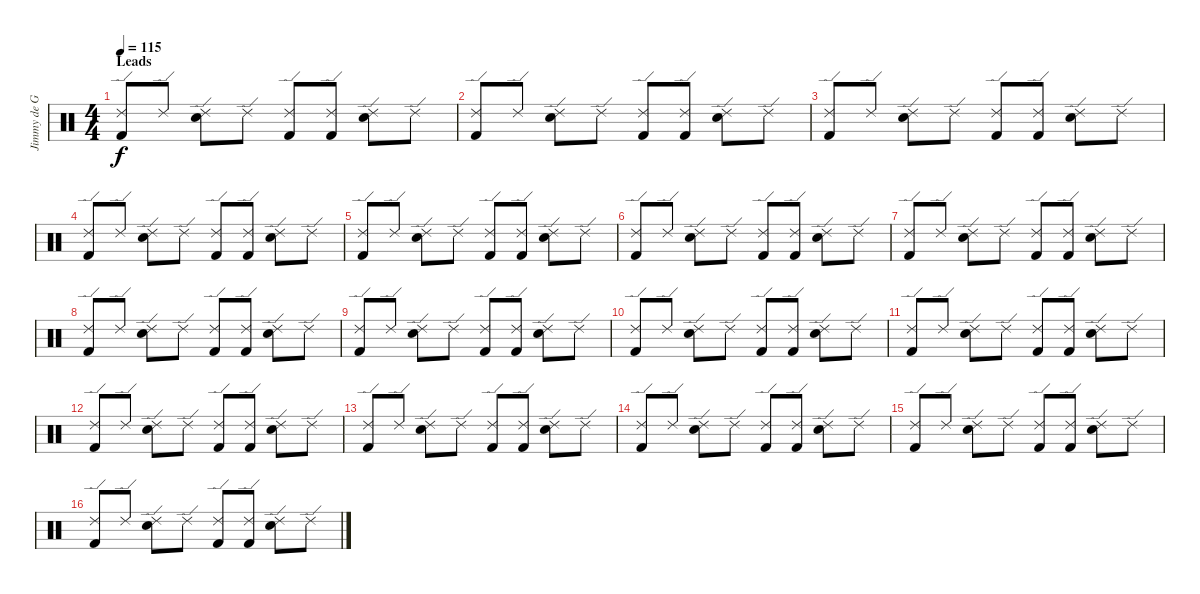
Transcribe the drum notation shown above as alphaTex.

\track ("Jimmy de Grasso" "Jimmy de G") {instrument percussion}
\staff {score}
\articulation defaults
\ts (4 4)
\section ("" "Leads")
\tempo 115
\clef neutral
\ks c
("Ride (edge) 2" "Kick (hit) 2").8{dy f} "Ride (edge) 2".8 ("Ride (edge) 2" "Snare (hit) 2").8 "Ride (edge) 2".8 ("Ride (edge) 2" "Kick (hit) 2").8 ("Ride (edge) 2" "Kick (hit) 2").8 ("Ride (edge) 2" "Snare (hit) 2").8 "Ride (edge) 2".8 |
("Ride (edge) 2" "Kick (hit) 2").8 "Ride (edge) 2".8 ("Ride (edge) 2" "Snare (hit) 2").8 "Ride (edge) 2".8 ("Ride (edge) 2" "Kick (hit) 2").8 ("Ride (edge) 2" "Kick (hit) 2").8 ("Ride (edge) 2" "Snare (hit) 2").8 "Ride (edge) 2".8 |
("Ride (edge) 2" "Kick (hit) 2").8 "Ride (edge) 2".8 ("Ride (edge) 2" "Snare (hit) 2").8 "Ride (edge) 2".8 ("Ride (edge) 2" "Kick (hit) 2").8 ("Ride (edge) 2" "Kick (hit) 2").8 ("Ride (edge) 2" "Snare (hit) 2").8 "Ride (edge) 2".8 |
("Ride (edge) 2" "Kick (hit) 2").8 "Ride (edge) 2".8 ("Ride (edge) 2" "Snare (hit) 2").8 "Ride (edge) 2".8 ("Ride (edge) 2" "Kick (hit) 2").8 ("Ride (edge) 2" "Kick (hit) 2").8 ("Ride (edge) 2" "Snare (hit) 2").8 "Ride (edge) 2".8 |
("Ride (edge) 2" "Kick (hit) 2").8 "Ride (edge) 2".8 ("Ride (edge) 2" "Snare (hit) 2").8 "Ride (edge) 2".8 ("Ride (edge) 2" "Kick (hit) 2").8 ("Ride (edge) 2" "Kick (hit) 2").8 ("Ride (edge) 2" "Snare (hit) 2").8 "Ride (edge) 2".8 |
("Ride (edge) 2" "Kick (hit) 2").8 "Ride (edge) 2".8 ("Ride (edge) 2" "Snare (hit) 2").8 "Ride (edge) 2".8 ("Ride (edge) 2" "Kick (hit) 2").8 ("Ride (edge) 2" "Kick (hit) 2").8 ("Ride (edge) 2" "Snare (hit) 2").8 "Ride (edge) 2".8 |
("Ride (edge) 2" "Kick (hit) 2").8 "Ride (edge) 2".8 ("Ride (edge) 2" "Snare (hit) 2").8 "Ride (edge) 2".8 ("Ride (edge) 2" "Kick (hit) 2").8 ("Ride (edge) 2" "Kick (hit) 2").8 ("Ride (edge) 2" "Snare (hit) 2").8 "Ride (edge) 2".8 |
("Ride (edge) 2" "Kick (hit) 2").8 "Ride (edge) 2".8 ("Ride (edge) 2" "Snare (hit) 2").8 "Ride (edge) 2".8 ("Ride (edge) 2" "Kick (hit) 2").8 ("Ride (edge) 2" "Kick (hit) 2").8 ("Ride (edge) 2" "Snare (hit) 2").8 "Ride (edge) 2".8 |
("Ride (edge) 2" "Kick (hit) 2").8 "Ride (edge) 2".8 ("Ride (edge) 2" "Snare (hit) 2").8 "Ride (edge) 2".8 ("Ride (edge) 2" "Kick (hit) 2").8 ("Ride (edge) 2" "Kick (hit) 2").8 ("Ride (edge) 2" "Snare (hit) 2").8 "Ride (edge) 2".8 |
("Ride (edge) 2" "Kick (hit) 2").8 "Ride (edge) 2".8 ("Ride (edge) 2" "Snare (hit) 2").8 "Ride (edge) 2".8 ("Ride (edge) 2" "Kick (hit) 2").8 ("Ride (edge) 2" "Kick (hit) 2").8 ("Ride (edge) 2" "Snare (hit) 2").8 "Ride (edge) 2".8 |
("Ride (edge) 2" "Kick (hit) 2").8 "Ride (edge) 2".8 ("Ride (edge) 2" "Snare (hit) 2").8 "Ride (edge) 2".8 ("Ride (edge) 2" "Kick (hit) 2").8 ("Ride (edge) 2" "Kick (hit) 2").8 ("Ride (edge) 2" "Snare (hit) 2").8 "Ride (edge) 2".8 |
("Ride (edge) 2" "Kick (hit) 2").8 "Ride (edge) 2".8 ("Ride (edge) 2" "Snare (hit) 2").8 "Ride (edge) 2".8 ("Ride (edge) 2" "Kick (hit) 2").8 ("Ride (edge) 2" "Kick (hit) 2").8 ("Ride (edge) 2" "Snare (hit) 2").8 "Ride (edge) 2".8 |
("Ride (edge) 2" "Kick (hit) 2").8 "Ride (edge) 2".8 ("Ride (edge) 2" "Snare (hit) 2").8 "Ride (edge) 2".8 ("Ride (edge) 2" "Kick (hit) 2").8 ("Ride (edge) 2" "Kick (hit) 2").8 ("Ride (edge) 2" "Snare (hit) 2").8 "Ride (edge) 2".8 |
("Ride (edge) 2" "Kick (hit) 2").8 "Ride (edge) 2".8 ("Ride (edge) 2" "Snare (hit) 2").8 "Ride (edge) 2".8 ("Ride (edge) 2" "Kick (hit) 2").8 ("Ride (edge) 2" "Kick (hit) 2").8 ("Ride (edge) 2" "Snare (hit) 2").8 "Ride (edge) 2".8 |
("Ride (edge) 2" "Kick (hit) 2").8 "Ride (edge) 2".8 ("Ride (edge) 2" "Snare (hit) 2").8 "Ride (edge) 2".8 ("Ride (edge) 2" "Kick (hit) 2").8 ("Ride (edge) 2" "Kick (hit) 2").8 ("Ride (edge) 2" "Snare (hit) 2").8 "Ride (edge) 2".8 |
("Ride (edge) 2" "Kick (hit) 2").8 "Ride (edge) 2".8 ("Ride (edge) 2" "Snare (hit) 2").8 "Ride (edge) 2".8 ("Ride (edge) 2" "Kick (hit) 2").8 ("Ride (edge) 2" "Kick (hit) 2").8 ("Ride (edge) 2" "Snare (hit) 2").8 "Ride (edge) 2".8
